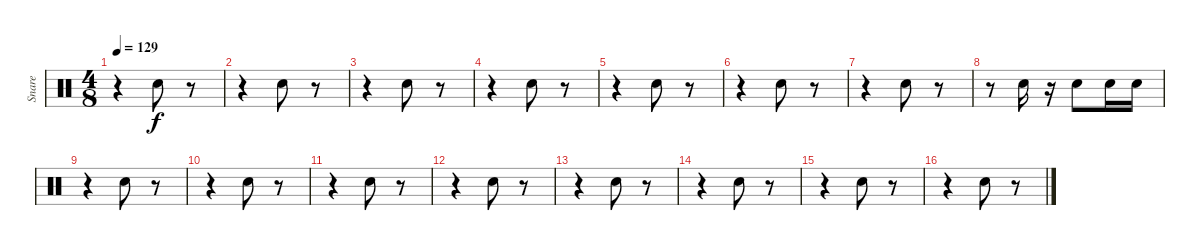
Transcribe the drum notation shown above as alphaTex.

\track ("Snare" "Snare") {instrument percussion}
\staff {score}
\articulation defaults
\ts (4 8)
\tempo 129
\clef neutral
\ks c
r.4{dy f} "Snare (hit) 2".8 r.8 |
r.4 "Snare (hit) 2".8 r.8 |
r.4 "Snare (hit) 2".8 r.8 |
r.4 "Snare (hit) 2".8 r.8 |
r.4 "Snare (hit) 2".8 r.8 |
r.4 "Snare (hit) 2".8 r.8 |
r.4 "Snare (hit) 2".8 r.8 |
r.8 "Snare (hit) 2".16 r.16 "Snare (hit) 2".8 "Snare (hit) 2".16 "Snare (hit) 2".16 |
r.4 "Snare (hit) 2".8 r.8 |
r.4 "Snare (hit) 2".8 r.8 |
r.4 "Snare (hit) 2".8 r.8 |
r.4 "Snare (hit) 2".8 r.8 |
r.4 "Snare (hit) 2".8 r.8 |
r.4 "Snare (hit) 2".8 r.8 |
r.4 "Snare (hit) 2".8 r.8 |
r.4 "Snare (hit) 2".8 r.8
